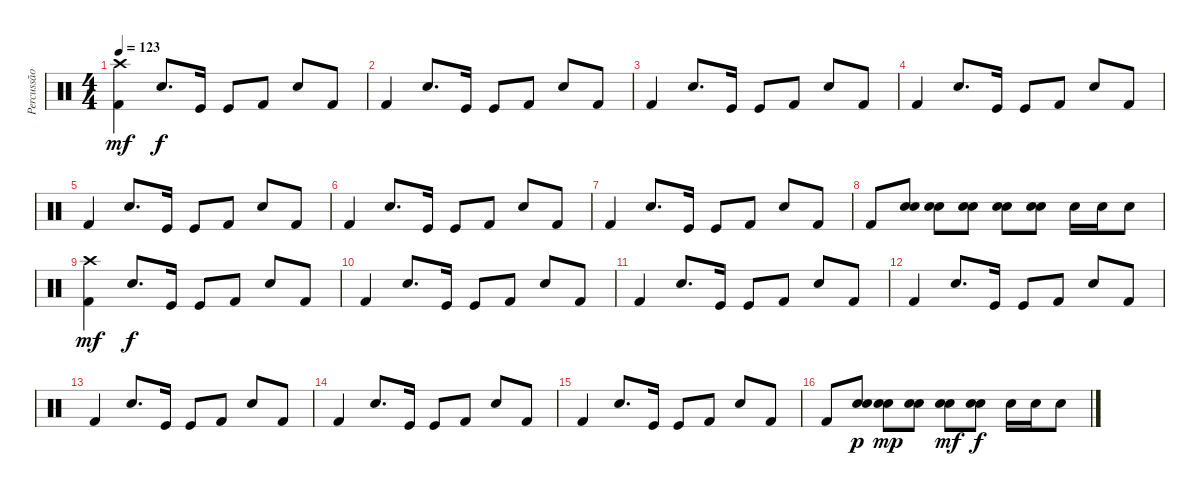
\track ("Percussão" "Percussão") {instrument percussion}
\staff {score}
\articulation defaults
\ts (4 4)
\tempo 123
\clef neutral
\ks c
("Crash high (hit)" "Kick (hit) 2").4{dy mf} "Snare (hit) 2".8{d dy f} "Kick (hit)".16 "Kick (hit)".8 "Kick (hit) 2".8 "Snare (hit) 2".8 "Kick (hit) 2".8 |
"Kick (hit) 2".4 "Snare (hit) 2".8{d} "Kick (hit)".16 "Kick (hit)".8 "Kick (hit) 2".8 "Snare (hit) 2".8 "Kick (hit) 2".8 |
"Kick (hit) 2".4 "Snare (hit) 2".8{d} "Kick (hit)".16 "Kick (hit)".8 "Kick (hit) 2".8 "Snare (hit) 2".8 "Kick (hit) 2".8 |
"Kick (hit) 2".4 "Snare (hit) 2".8{d} "Kick (hit)".16 "Kick (hit)".8 "Kick (hit) 2".8 "Snare (hit) 2".8 "Kick (hit) 2".8 |
"Kick (hit) 2".4 "Snare (hit) 2".8{d} "Kick (hit)".16 "Kick (hit)".8 "Kick (hit) 2".8 "Snare (hit) 2".8 "Kick (hit) 2".8 |
"Kick (hit) 2".4 "Snare (hit) 2".8{d} "Kick (hit)".16 "Kick (hit)".8 "Kick (hit) 2".8 "Snare (hit) 2".8 "Kick (hit) 2".8 |
"Kick (hit) 2".4 "Snare (hit) 2".8{d} "Kick (hit)".16 "Kick (hit)".8 "Kick (hit) 2".8 "Snare (hit) 2".8 "Kick (hit) 2".8 |
"Kick (hit) 2".8 ("Snare (hit) 2" "Snare (hit) 2").8 ("Snare (hit) 2" "Snare (hit) 2").8 ("Snare (hit) 2" "Snare (hit) 2").8 ("Snare (hit) 2" "Snare (hit) 2").8 ("Snare (hit) 2" "Snare (hit) 2").8 "Snare (hit) 2".16 "Snare (hit) 2".16 "Snare (hit) 2".8 |
("Crash high (hit)" "Kick (hit) 2").4{dy mf} "Snare (hit) 2".8{d dy f} "Kick (hit)".16 "Kick (hit)".8 "Kick (hit) 2".8 "Snare (hit) 2".8 "Kick (hit) 2".8 |
"Kick (hit) 2".4 "Snare (hit) 2".8{d} "Kick (hit)".16 "Kick (hit)".8 "Kick (hit) 2".8 "Snare (hit) 2".8 "Kick (hit) 2".8 |
"Kick (hit) 2".4 "Snare (hit) 2".8{d} "Kick (hit)".16 "Kick (hit)".8 "Kick (hit) 2".8 "Snare (hit) 2".8 "Kick (hit) 2".8 |
"Kick (hit) 2".4 "Snare (hit) 2".8{d} "Kick (hit)".16 "Kick (hit)".8 "Kick (hit) 2".8 "Snare (hit) 2".8 "Kick (hit) 2".8 |
"Kick (hit) 2".4 "Snare (hit) 2".8{d} "Kick (hit)".16 "Kick (hit)".8 "Kick (hit) 2".8 "Snare (hit) 2".8 "Kick (hit) 2".8 |
"Kick (hit) 2".4 "Snare (hit) 2".8{d} "Kick (hit)".16 "Kick (hit)".8 "Kick (hit) 2".8 "Snare (hit) 2".8 "Kick (hit) 2".8 |
"Kick (hit) 2".4 "Snare (hit) 2".8{d} "Kick (hit)".16 "Kick (hit)".8 "Kick (hit) 2".8 "Snare (hit) 2".8 "Kick (hit) 2".8 |
"Kick (hit) 2".8 ("Snare (hit) 2" "Snare (hit) 2").8{dy p} ("Snare (hit) 2" "Snare (hit) 2").8{dy mp} ("Snare (hit) 2" "Snare (hit) 2").8 ("Snare (hit) 2" "Snare (hit) 2").8{dy mf} ("Snare (hit) 2" "Snare (hit) 2").8{dy f} "Snare (hit) 2".16 "Snare (hit) 2".16 "Snare (hit) 2".8
